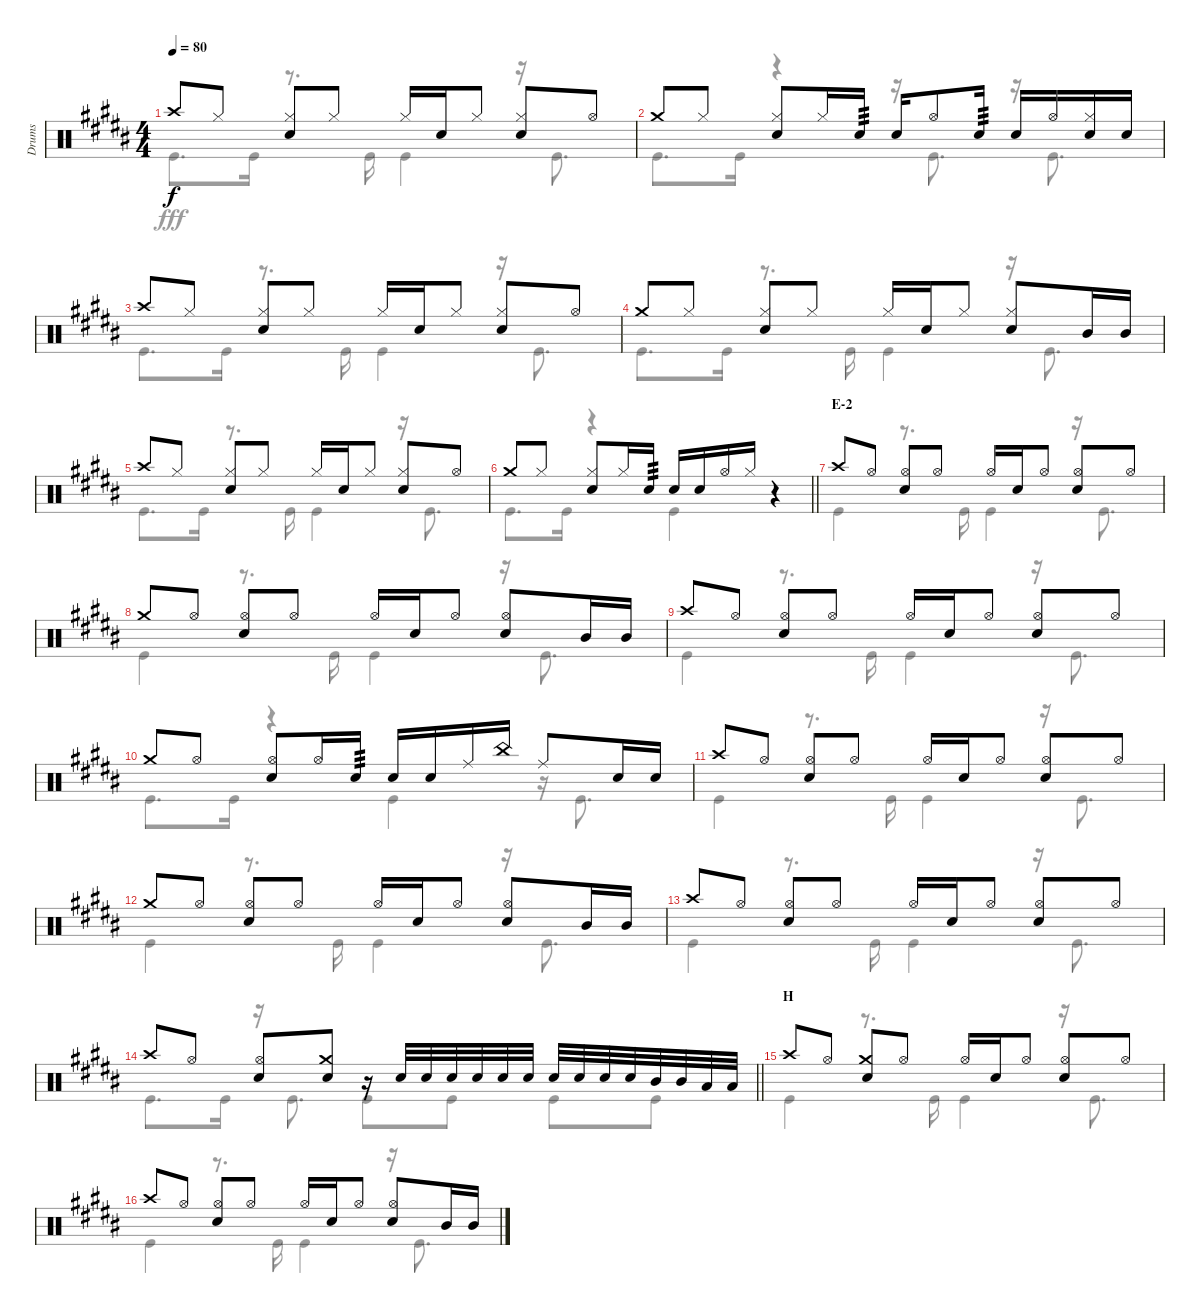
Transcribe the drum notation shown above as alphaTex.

\track ("Drums" "Drums") {instrument percussion}
\staff {score}
\articulation defaults
\voice
\ts (4 4)
\tempo 80
\clef neutral
\ks b "Crash high (hit)".8{dy f} "Hi-Hat (closed)".8
("Hi-Hat (closed)" "Snare (hit) 2").8 "Hi-Hat (closed)".8 "Hi-Hat (closed)".16 "Snare (hit) 2".16 "Hi-Hat (closed)".8 ("Hi-Hat (closed)" "Snare (hit) 2").8 "Hi-Hat (open)".8 |
"Crash medium (hit)".8 "Hi-Hat (closed)".8 ("Hi-Hat (closed)" "Snare (hit) 2").8 "Hi-Hat (closed)".16 "Snare (hit) 2".16{tp 3} "Snare (hit) 2".16 "Hi-Hat (open)".8 "Snare (hit) 2".16{tp 3} "Snare (hit) 2".16 "Hi-Hat (open)".16 ("Hi-Hat (closed)" "Snare (hit) 2").16 "Snare (hit) 2".16 |
"Crash high (hit)".8 "Hi-Hat (closed)".8 ("Hi-Hat (closed)" "Snare (hit) 2").8 "Hi-Hat (closed)".8 "Hi-Hat (closed)".16 "Snare (hit) 2".16 "Hi-Hat (closed)".8 ("Hi-Hat (closed)" "Snare (hit) 2").8 "Hi-Hat (open)".8 |
"Crash medium (hit)".8 "Hi-Hat (closed)".8 ("Hi-Hat (closed)" "Snare (hit) 2").8 "Hi-Hat (closed)".8 "Hi-Hat (closed)".16 "Snare (hit) 2".16 "Hi-Hat (closed)".8 ("Hi-Hat (closed)" "Snare (hit) 2").8 "Mid Tom (hit)".16 "Mid Tom (hit)".16 |
"Crash high (hit)".8 "Hi-Hat (closed)".8 ("Hi-Hat (closed)" "Snare (hit) 2").8 "Hi-Hat (closed)".8 "Hi-Hat (closed)".16 "Snare (hit) 2".16 "Hi-Hat (closed)".8 ("Hi-Hat (closed)" "Snare (hit) 2").8 "Hi-Hat (open)".8 |
\barLineRight lightlight "Crash medium (hit)".8 "Hi-Hat (closed)".8
("Hi-Hat (closed)" "Snare (hit) 2").8 "Hi-Hat (closed)".16 "Snare (hit) 2".16{tp 3} "Snare (hit) 2".16 "Snare (hit) 2".16 "Hi-Hat (open)".16 "Hi-Hat (closed)".16 r.4 |
\section ("" "E-2")
"Crash high (hit)".8 "Hi-Hat (open)".8 ("Hi-Hat (open)" "Snare (hit) 2").8 "Hi-Hat (open)".8 "Hi-Hat (open)".16 "Snare (hit) 2".16 "Hi-Hat (open)".8 ("Hi-Hat (open)" "Snare (hit) 2").8 "Hi-Hat (open)".8 |
"Crash medium (hit)".8 "Hi-Hat (open)".8 ("Hi-Hat (open)" "Snare (hit) 2").8 "Hi-Hat (open)".8 "Hi-Hat (open)".16 "Snare (hit) 2".16 "Hi-Hat (open)".8 ("Hi-Hat (open)" "Snare (hit) 2").8 "Mid Tom (hit)".16 "Mid Tom (hit)".16 |
"Crash high (hit)".8 "Hi-Hat (open)".8 ("Hi-Hat (open)" "Snare (hit) 2").8 "Hi-Hat (open)".8 "Hi-Hat (open)".16 "Snare (hit) 2".16 "Hi-Hat (open)".8 ("Hi-Hat (open)" "Snare (hit) 2").8 "Hi-Hat (open)".8 |
"Crash medium (hit)".8 "Hi-Hat (open)".8 ("Hi-Hat (open)" "Snare (hit) 2").8 "Hi-Hat (open)".16 "Snare (hit) 2".16{tp 3} "Snare (hit) 2".16 "Snare (hit) 2".16 "Ride (middle)".16 "China (hit)".16 "Ride (middle)".8 "Snare (hit) 2".16 "Snare (hit) 2".16 |
"Crash high (hit)".8 "Hi-Hat (open)".8 ("Hi-Hat (open)" "Snare (hit) 2").8 "Hi-Hat (open)".8 "Hi-Hat (open)".16 "Snare (hit) 2".16 "Hi-Hat (open)".8 ("Hi-Hat (open)" "Snare (hit) 2").8 "Hi-Hat (open)".8 |
"Crash medium (hit)".8 "Hi-Hat (open)".8 ("Hi-Hat (open)" "Snare (hit) 2").8 "Hi-Hat (open)".8 "Hi-Hat (open)".16 "Snare (hit) 2".16 "Hi-Hat (open)".8 ("Hi-Hat (open)" "Snare (hit) 2").8 "Mid Tom (hit)".16 "Mid Tom (hit)".16 |
"Crash high (hit)".8 "Hi-Hat (open)".8 ("Hi-Hat (open)" "Snare (hit) 2").8 "Hi-Hat (open)".8 "Hi-Hat (open)".16 "Snare (hit) 2".16 "Hi-Hat (open)".8 ("Hi-Hat (open)" "Snare (hit) 2").8 "Hi-Hat (open)".8 |
\barLineRight lightlight "Crash high (hit)".8 "Hi-Hat (open)".8
("Hi-Hat (open)" "Snare (hit) 2").8 ("Crash medium (hit)" "Snare (hit) 2").8 r.16 "Snare (hit) 2".32 "Snare (hit) 2".32 "Snare (hit) 2".32 "Snare (hit) 2".32 "Snare (hit) 2".32 "Snare (hit) 2".32 "Snare (hit) 2".32 "Snare (hit) 2".32 "Snare (hit) 2".32 "Snare (hit) 2".32 "Mid Tom (hit)".32 "Mid Tom (hit)".32 "Low Tom (hit)".32 "Low Tom (hit)".32 |
\section ("" "H")
"Crash high (hit)".8 "Hi-Hat (open)".8 ("Crash medium (hit)" "Snare (hit) 2").8 "Hi-Hat (open)".8 "Hi-Hat (open)".16 "Snare (hit) 2".16 "Hi-Hat (open)".8 ("Hi-Hat (open)" "Snare (hit) 2").8 "Hi-Hat (open)".8 |
"Crash high (hit)".8 "Hi-Hat (open)".8 ("Hi-Hat (open)" "Snare (hit) 2").8 "Hi-Hat (open)".8 "Hi-Hat (open)".16 "Snare (hit) 2".16 "Hi-Hat (open)".8 ("Hi-Hat (open)" "Snare (hit) 2").8 "Mid Tom (hit)".16 "Mid Tom (hit)".16
\voice
\clef neutral
\ottava regular
\simile none
\ks b "Kick (hit)".8{d dy fff} "Kick (hit)".16
r.8{d} "Kick (hit)".16 "Kick (hit)".4 r.16 "Kick (hit)".8{d} |
"Kick (hit)".8{d} "Kick (hit)".16 r.4 r.16 "Kick (hit)".8{d} r.16 "Kick (hit)".8{d} |
"Kick (hit)".8{d} "Kick (hit)".16 r.8{d} "Kick (hit)".16 "Kick (hit)".4 r.16 "Kick (hit)".8{d} |
"Kick (hit)".8{d} "Kick (hit)".16 r.8{d} "Kick (hit)".16 "Kick (hit)".4 r.16 "Kick (hit)".8{d} |
"Kick (hit)".8{d} "Kick (hit)".16 r.8{d} "Kick (hit)".16 "Kick (hit)".4 r.16 "Kick (hit)".8{d} |
\barLineRight lightlight "Kick (hit)".8{d} "Kick (hit)".16
r.4 "Kick (hit)".4 r.4 |
"Kick (hit)".4 r.8{d} "Kick (hit)".16 "Kick (hit)".4 r.16 "Kick (hit)".8{d} |
"Kick (hit)".4 r.8{d} "Kick (hit)".16 "Kick (hit)".4 r.16 "Kick (hit)".8{d} |
"Kick (hit)".4 r.8{d} "Kick (hit)".16 "Kick (hit)".4 r.16 "Kick (hit)".8{d} |
"Kick (hit)".8{d} "Kick (hit)".16 r.4 "Kick (hit)".4 r.16 "Kick (hit)".8{d} |
"Kick (hit)".4 r.8{d} "Kick (hit)".16 "Kick (hit)".4 r.16 "Kick (hit)".8{d} |
"Kick (hit)".4 r.8{d} "Kick (hit)".16 "Kick (hit)".4 r.16 "Kick (hit)".8{d} |
"Kick (hit)".4 r.8{d} "Kick (hit)".16 "Kick (hit)".4 r.16 "Kick (hit)".8{d} |
\barLineRight lightlight "Kick (hit)".8{d} "Kick (hit)".16
r.16 "Kick (hit)".8{d} "Kick (hit)".8 "Kick (hit)".8 "Kick (hit)".8 "Kick (hit)".8 |
"Kick (hit)".4 r.8{d} "Kick (hit)".16 "Kick (hit)".4 r.16 "Kick (hit)".8{d} |
"Kick (hit)".4 r.8{d} "Kick (hit)".16 "Kick (hit)".4 r.16 "Kick (hit)".8{d}
